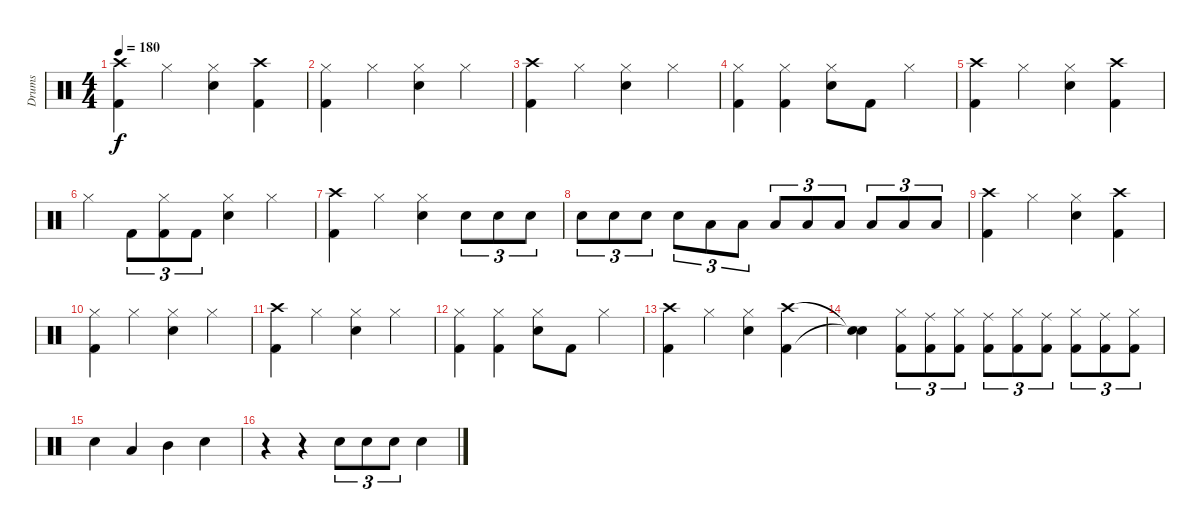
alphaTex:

\track ("Drums" "Drums") {instrument percussion}
\staff {score}
\articulation defaults
\ts (4 4)
\tempo 180
\clef neutral
\ks c
("Crash high (hit)" "Kick (hit) 2").4{dy f} "Hi-Hat (closed)".4 ("Hi-Hat (closed)" "Electric Snare (hit)").4 ("Crash high (hit)" "Kick (hit) 2").4 |
("Hi-Hat (closed)" "Kick (hit) 2").4 "Hi-Hat (closed)".4 ("Hi-Hat (closed)" "Electric Snare (hit)").4 "Hi-Hat (closed)".4 |
("Crash high (hit)" "Kick (hit) 2").4 "Hi-Hat (closed)".4 ("Hi-Hat (closed)" "Electric Snare (hit)").4 "Hi-Hat (closed)".4 |
("Hi-Hat (closed)" "Kick (hit) 2").4 ("Hi-Hat (closed)" "Kick (hit) 2").4 ("Hi-Hat (closed)" "Electric Snare (hit)").8 "Kick (hit) 2".8 "Hi-Hat (closed)".4 |
("Crash high (hit)" "Kick (hit) 2").4 "Hi-Hat (closed)".4 ("Hi-Hat (closed)" "Electric Snare (hit)").4 ("Crash high (hit)" "Kick (hit) 2").4 |
"Hi-Hat (closed)".4 "Kick (hit) 2".8{tu (3 2)} ("Hi-Hat (closed)" "Kick (hit) 2").8{tu (3 2)} "Kick (hit) 2".8{tu (3 2)} ("Hi-Hat (closed)" "Electric Snare (hit)").4 "Hi-Hat (closed)".4 |
("Crash high (hit)" "Kick (hit) 2").4 "Hi-Hat (closed)".4 ("Hi-Hat (closed)" "Electric Snare (hit)").4 "Electric Snare (hit)".8{tu (3 2)} "Electric Snare (hit)".8{tu (3 2)} "Electric Snare (hit)".8{tu (3 2)} |
"Electric Snare (hit)".8{tu (3 2)} "Electric Snare (hit)".8{tu (3 2)} "Electric Snare (hit)".8{tu (3 2)} "Electric Snare (hit)".8{tu (3 2)} "Low Tom (hit)".8{tu (3 2)} "Low Tom (hit)".8{tu (3 2)} "Low Tom (hit)".8{tu (3 2)} "Low Tom (hit)".8{tu (3 2)} "Low Tom (hit)".8{tu (3 2)} "Low Tom (hit)".8{tu (3 2)} "Low Tom (hit)".8{tu (3 2)} "Low Tom (hit)".8{tu (3 2)} |
("Crash high (hit)" "Kick (hit) 2").4 "Hi-Hat (closed)".4 ("Hi-Hat (closed)" "Electric Snare (hit)").4 ("Crash high (hit)" "Kick (hit) 2").4 |
("Hi-Hat (closed)" "Kick (hit) 2").4 "Hi-Hat (closed)".4 ("Hi-Hat (closed)" "Electric Snare (hit)").4 "Hi-Hat (closed)".4 |
("Crash high (hit)" "Kick (hit) 2").4 "Hi-Hat (closed)".4 ("Hi-Hat (closed)" "Electric Snare (hit)").4 "Hi-Hat (closed)".4 |
("Hi-Hat (closed)" "Kick (hit) 2").4 ("Hi-Hat (closed)" "Kick (hit) 2").4 ("Hi-Hat (closed)" "Electric Snare (hit)").8 "Kick (hit) 2".8 "Hi-Hat (closed)".4 |
("Crash high (hit)" "Kick (hit) 2").4 "Hi-Hat (closed)".4 ("Hi-Hat (closed)" "Electric Snare (hit)").4 ("Crash high (hit)" "Kick (hit) 2").4 |
("Snare (hit)"{t} "Snare (hit)"{t}).4 ("Hi-Hat (closed)" "Kick (hit) 2").8{tu (3 2)} ("Ride (middle)" "Kick (hit) 2").8{tu (3 2)} ("Hi-Hat (closed)" "Kick (hit) 2").8{tu (3 2)} ("Ride (middle)" "Kick (hit) 2").8{tu (3 2)} ("Hi-Hat (closed)" "Kick (hit) 2").8{tu (3 2)} ("Ride (middle)" "Kick (hit) 2").8{tu (3 2)} ("Hi-Hat (closed)" "Kick (hit) 2").8{tu (3 2)} ("Ride (middle)" "Kick (hit) 2").8{tu (3 2)} ("Hi-Hat (closed)" "Kick (hit) 2").8{tu (3 2)} |
"Electric Snare (hit)".4 "Low Tom (hit)".4 "Mid Tom (hit)".4 "Electric Snare (hit)".4 |
r.4 r.4 "Electric Snare (hit)".8{tu (3 2)} "Electric Snare (hit)".8{tu (3 2)} "Electric Snare (hit)".8{tu (3 2)} "Electric Snare (hit)".4
